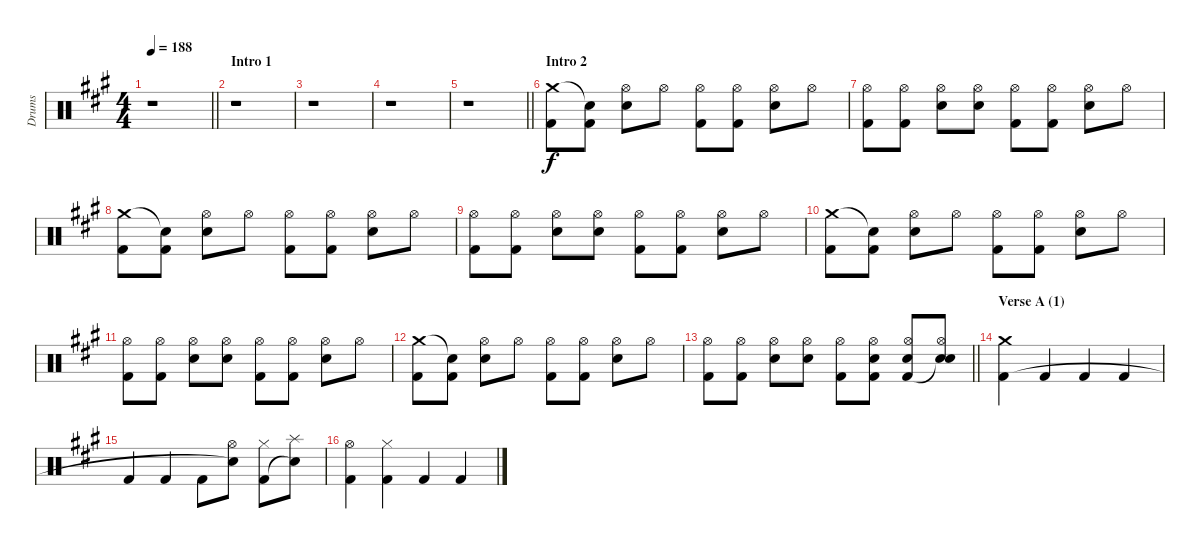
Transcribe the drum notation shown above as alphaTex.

\track ("Drums" "Drums") {instrument percussion}
\staff {score}
\articulation defaults
\ts (4 4)
\tempo 188
\clef neutral
\barLineRight lightlight
\ks a
r.1{dy f} |
\section ("" "Intro 1")
r.1 |
r.1 |
r.1 |
\barLineRight lightlight
r.1 |
\section ("" "Intro 2")
("Crash medium (hit)" "Kick (hit) 2").8 ("Snare (hit)"{t} "Kick (hit) 2").8 ("Hi-Hat (open)" "Electric Snare (hit)").8 "Hi-Hat (open)".8 ("Hi-Hat (open)" "Kick (hit) 2").8 ("Hi-Hat (open)" "Kick (hit) 2").8 ("Hi-Hat (open)" "Electric Snare (hit)").8 "Hi-Hat (open)".8 |
("Hi-Hat (open)" "Kick (hit) 2").8 ("Hi-Hat (open)" "Kick (hit) 2").8 ("Hi-Hat (open)" "Electric Snare (hit)").8 ("Hi-Hat (open)" "Electric Snare (hit)").8 ("Hi-Hat (open)" "Kick (hit) 2").8 ("Hi-Hat (open)" "Kick (hit) 2").8 ("Hi-Hat (open)" "Electric Snare (hit)").8 "Hi-Hat (open)".8 |
("Crash medium (hit)" "Kick (hit) 2").8 ("Snare (hit)"{t} "Kick (hit) 2").8 ("Hi-Hat (open)" "Electric Snare (hit)").8 "Hi-Hat (open)".8 ("Hi-Hat (open)" "Kick (hit) 2").8 ("Hi-Hat (open)" "Kick (hit) 2").8 ("Hi-Hat (open)" "Electric Snare (hit)").8 "Hi-Hat (open)".8 |
("Hi-Hat (open)" "Kick (hit) 2").8 ("Hi-Hat (open)" "Kick (hit) 2").8 ("Hi-Hat (open)" "Electric Snare (hit)").8 ("Hi-Hat (open)" "Electric Snare (hit)").8 ("Hi-Hat (open)" "Kick (hit) 2").8 ("Hi-Hat (open)" "Kick (hit) 2").8 ("Hi-Hat (open)" "Electric Snare (hit)").8 "Hi-Hat (open)".8 |
("Crash medium (hit)" "Kick (hit) 2").8 ("Snare (hit)"{t} "Kick (hit) 2").8 ("Hi-Hat (open)" "Electric Snare (hit)").8 "Hi-Hat (open)".8 ("Hi-Hat (open)" "Kick (hit) 2").8 ("Hi-Hat (open)" "Kick (hit) 2").8 ("Hi-Hat (open)" "Electric Snare (hit)").8 "Hi-Hat (open)".8 |
("Hi-Hat (open)" "Kick (hit) 2").8 ("Hi-Hat (open)" "Kick (hit) 2").8 ("Hi-Hat (open)" "Electric Snare (hit)").8 ("Hi-Hat (open)" "Electric Snare (hit)").8 ("Hi-Hat (open)" "Kick (hit) 2").8 ("Hi-Hat (open)" "Kick (hit) 2").8 ("Hi-Hat (open)" "Electric Snare (hit)").8 "Hi-Hat (open)".8 |
("Crash medium (hit)" "Kick (hit) 2").8 ("Snare (hit)"{t} "Kick (hit) 2").8 ("Hi-Hat (open)" "Electric Snare (hit)").8 "Hi-Hat (open)".8 ("Hi-Hat (open)" "Kick (hit) 2").8 ("Hi-Hat (open)" "Kick (hit) 2").8 ("Hi-Hat (open)" "Electric Snare (hit)").8 "Hi-Hat (open)".8 |
\barLineRight lightlight
("Hi-Hat (open)" "Kick (hit) 2").8 ("Hi-Hat (open)" "Kick (hit) 2").8 ("Hi-Hat (open)" "Electric Snare (hit)").8 ("Hi-Hat (open)" "Electric Snare (hit)").8 ("Hi-Hat (open)" "Kick (hit) 2").8 ("Hi-Hat (open)" "Electric Snare (hit)" "Kick (hit) 2").8 ("Hi-Hat (open)" "Electric Snare (hit)" "Kick (hit) 2").8 ("Hi-Hat (open)" "Electric Snare (hit)" "Snare (hit)"{t}).8 |
\section ("" "Verse A (1)")
("Crash medium (hit)" "Kick (hit) 2").4 "Kick (hit) 2".4 "Kick (hit) 2".4 "Kick (hit) 2".4 |
"Kick (hit) 2".4 "Kick (hit) 2".4 "Kick (hit) 2".8 ("Hi-Hat (open)" "Snare (hit)"{t}).8 ("Hi-Hat (closed)" "Kick (hit) 2").8 ("Splash (hit)" "Snare (hit)"{t}).8 |
("Hi-Hat (open)" "Kick (hit) 2").4 ("Hi-Hat (closed)" "Kick (hit) 2").4 "Kick (hit) 2".4 "Kick (hit) 2".4
